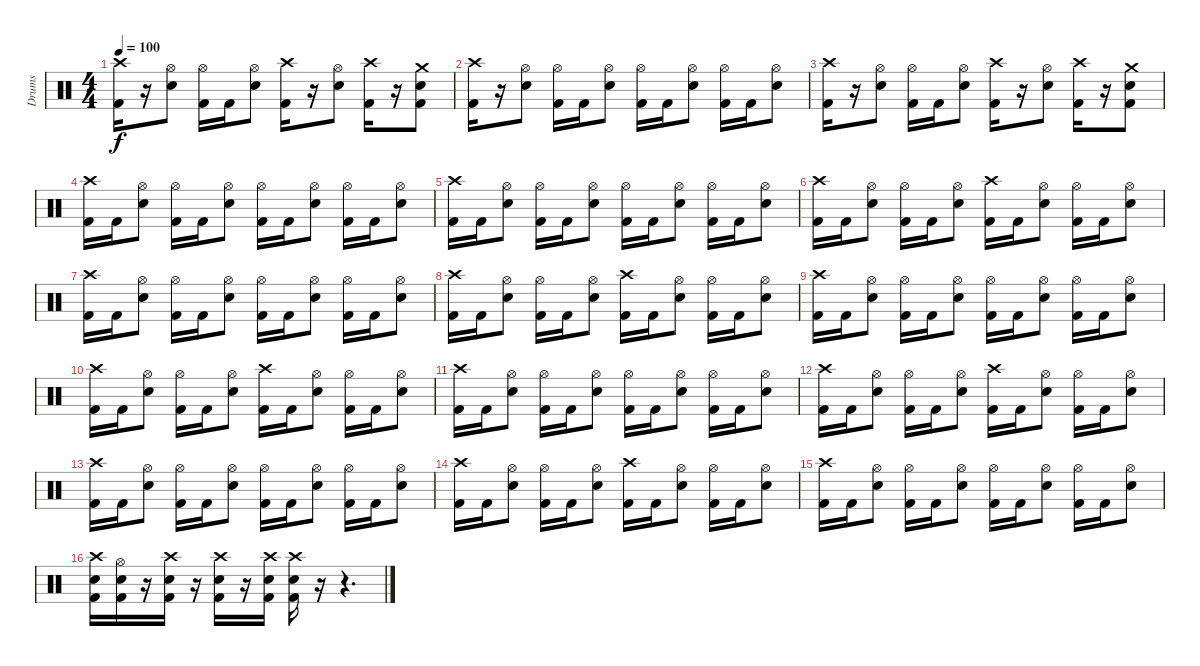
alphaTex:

\track ("Drums" "Drums") {instrument percussion}
\staff {score}
\articulation defaults
\ts (4 4)
\tempo 100
\clef neutral
\ks c
("Crash high (hit)" "Kick (hit) 2").16{dy f} r.16 ("Hi-Hat (open)" "Electric Snare (hit)").8 ("Hi-Hat (open)" "Kick (hit) 2").16 "Kick (hit) 2".16 ("Hi-Hat (open)" "Electric Snare (hit)").8 ("Crash high (hit)" "Kick (hit) 2").16 r.16 ("Hi-Hat (open)" "Electric Snare (hit)").8 ("Crash high (hit)" "Kick (hit) 2").16 r.16 ("Crash medium (hit)" "Electric Snare (hit)" "Kick (hit) 2").8 |
("Crash high (hit)" "Kick (hit) 2").16 r.16 ("Hi-Hat (open)" "Electric Snare (hit)").8 ("Hi-Hat (open)" "Kick (hit) 2").16 "Kick (hit) 2".16 ("Hi-Hat (open)" "Electric Snare (hit)").8 ("Hi-Hat (open)" "Kick (hit) 2").16 "Kick (hit) 2".16 ("Hi-Hat (open)" "Electric Snare (hit)").8 ("Hi-Hat (open)" "Kick (hit) 2").16 "Kick (hit) 2".16 ("Hi-Hat (open)" "Electric Snare (hit)").8 |
("Crash high (hit)" "Kick (hit) 2").16 r.16 ("Hi-Hat (open)" "Electric Snare (hit)").8 ("Hi-Hat (open)" "Kick (hit) 2").16 "Kick (hit) 2".16 ("Hi-Hat (open)" "Electric Snare (hit)").8 ("Crash high (hit)" "Kick (hit) 2").16 r.16 ("Hi-Hat (open)" "Electric Snare (hit)").8 ("Crash high (hit)" "Kick (hit) 2").16 r.16 ("Crash medium (hit)" "Electric Snare (hit)" "Kick (hit) 2").8 |
("Crash high (hit)" "Kick (hit) 2").16 "Kick (hit) 2".16 ("Hi-Hat (open)" "Electric Snare (hit)").8 ("Hi-Hat (open)" "Kick (hit) 2").16 "Kick (hit) 2".16 ("Hi-Hat (open)" "Electric Snare (hit)").8 ("Hi-Hat (open)" "Kick (hit) 2").16 "Kick (hit) 2".16 ("Hi-Hat (open)" "Electric Snare (hit)").8 ("Hi-Hat (open)" "Kick (hit) 2").16 "Kick (hit) 2".16 ("Hi-Hat (open)" "Electric Snare (hit)").8 |
("Crash high (hit)" "Kick (hit) 2").16 "Kick (hit) 2".16 ("Hi-Hat (open)" "Electric Snare (hit)").8 ("Hi-Hat (open)" "Kick (hit) 2").16 "Kick (hit) 2".16 ("Hi-Hat (open)" "Electric Snare (hit)").8 ("Hi-Hat (open)" "Kick (hit) 2").16 "Kick (hit) 2".16 ("Hi-Hat (open)" "Electric Snare (hit)").8 ("Hi-Hat (open)" "Kick (hit) 2").16 "Kick (hit) 2".16 ("Hi-Hat (open)" "Electric Snare (hit)").8 |
("Crash high (hit)" "Kick (hit) 2").16 "Kick (hit) 2".16 ("Hi-Hat (open)" "Electric Snare (hit)").8 ("Hi-Hat (open)" "Kick (hit) 2").16 "Kick (hit) 2".16 ("Hi-Hat (open)" "Electric Snare (hit)").8 ("Crash high (hit)" "Kick (hit) 2").16 "Kick (hit) 2".16 ("Hi-Hat (open)" "Electric Snare (hit)").8 ("Hi-Hat (open)" "Kick (hit) 2").16 "Kick (hit) 2".16 ("Hi-Hat (open)" "Electric Snare (hit)").8 |
("Crash high (hit)" "Kick (hit) 2").16 "Kick (hit) 2".16 ("Hi-Hat (open)" "Electric Snare (hit)").8 ("Hi-Hat (open)" "Kick (hit) 2").16 "Kick (hit) 2".16 ("Hi-Hat (open)" "Electric Snare (hit)").8 ("Hi-Hat (open)" "Kick (hit) 2").16 "Kick (hit) 2".16 ("Hi-Hat (open)" "Electric Snare (hit)").8 ("Hi-Hat (open)" "Kick (hit) 2").16 "Kick (hit) 2".16 ("Hi-Hat (open)" "Electric Snare (hit)").8 |
("Crash high (hit)" "Kick (hit) 2").16 "Kick (hit) 2".16 ("Hi-Hat (open)" "Electric Snare (hit)").8 ("Hi-Hat (open)" "Kick (hit) 2").16 "Kick (hit) 2".16 ("Hi-Hat (open)" "Electric Snare (hit)").8 ("Crash high (hit)" "Kick (hit) 2").16 "Kick (hit) 2".16 ("Hi-Hat (open)" "Electric Snare (hit)").8 ("Hi-Hat (open)" "Kick (hit) 2").16 "Kick (hit) 2".16 ("Hi-Hat (open)" "Electric Snare (hit)").8 |
("Crash high (hit)" "Kick (hit) 2").16 "Kick (hit) 2".16 ("Hi-Hat (open)" "Electric Snare (hit)").8 ("Hi-Hat (open)" "Kick (hit) 2").16 "Kick (hit) 2".16 ("Hi-Hat (open)" "Electric Snare (hit)").8 ("Hi-Hat (open)" "Kick (hit) 2").16 "Kick (hit) 2".16 ("Hi-Hat (open)" "Electric Snare (hit)").8 ("Hi-Hat (open)" "Kick (hit) 2").16 "Kick (hit) 2".16 ("Hi-Hat (open)" "Electric Snare (hit)").8 |
("Crash high (hit)" "Kick (hit) 2").16 "Kick (hit) 2".16 ("Hi-Hat (open)" "Electric Snare (hit)").8 ("Hi-Hat (open)" "Kick (hit) 2").16 "Kick (hit) 2".16 ("Hi-Hat (open)" "Electric Snare (hit)").8 ("Crash high (hit)" "Kick (hit) 2").16 "Kick (hit) 2".16 ("Hi-Hat (open)" "Electric Snare (hit)").8 ("Hi-Hat (open)" "Kick (hit) 2").16 "Kick (hit) 2".16 ("Hi-Hat (open)" "Electric Snare (hit)").8 |
("Crash high (hit)" "Kick (hit) 2").16 "Kick (hit) 2".16 ("Hi-Hat (open)" "Electric Snare (hit)").8 ("Hi-Hat (open)" "Kick (hit) 2").16 "Kick (hit) 2".16 ("Hi-Hat (open)" "Electric Snare (hit)").8 ("Hi-Hat (open)" "Kick (hit) 2").16 "Kick (hit) 2".16 ("Hi-Hat (open)" "Electric Snare (hit)").8 ("Hi-Hat (open)" "Kick (hit) 2").16 "Kick (hit) 2".16 ("Hi-Hat (open)" "Electric Snare (hit)").8 |
("Crash high (hit)" "Kick (hit) 2").16 "Kick (hit) 2".16 ("Hi-Hat (open)" "Electric Snare (hit)").8 ("Hi-Hat (open)" "Kick (hit) 2").16 "Kick (hit) 2".16 ("Hi-Hat (open)" "Electric Snare (hit)").8 ("Crash high (hit)" "Kick (hit) 2").16 "Kick (hit) 2".16 ("Hi-Hat (open)" "Electric Snare (hit)").8 ("Hi-Hat (open)" "Kick (hit) 2").16 "Kick (hit) 2".16 ("Hi-Hat (open)" "Electric Snare (hit)").8 |
("Crash high (hit)" "Kick (hit) 2").16 "Kick (hit) 2".16 ("Hi-Hat (open)" "Electric Snare (hit)").8 ("Hi-Hat (open)" "Kick (hit) 2").16 "Kick (hit) 2".16 ("Hi-Hat (open)" "Electric Snare (hit)").8 ("Hi-Hat (open)" "Kick (hit) 2").16 "Kick (hit) 2".16 ("Hi-Hat (open)" "Electric Snare (hit)").8 ("Hi-Hat (open)" "Kick (hit) 2").16 "Kick (hit) 2".16 ("Hi-Hat (open)" "Electric Snare (hit)").8 |
("Crash high (hit)" "Kick (hit) 2").16 "Kick (hit) 2".16 ("Hi-Hat (open)" "Electric Snare (hit)").8 ("Hi-Hat (open)" "Kick (hit) 2").16 "Kick (hit) 2".16 ("Hi-Hat (open)" "Electric Snare (hit)").8 ("Crash high (hit)" "Kick (hit) 2").16 "Kick (hit) 2".16 ("Hi-Hat (open)" "Electric Snare (hit)").8 ("Hi-Hat (open)" "Kick (hit) 2").16 "Kick (hit) 2".16 ("Hi-Hat (open)" "Electric Snare (hit)").8 |
("Crash high (hit)" "Kick (hit) 2").16 "Kick (hit) 2".16 ("Hi-Hat (open)" "Electric Snare (hit)").8 ("Hi-Hat (open)" "Kick (hit) 2").16 "Kick (hit) 2".16 ("Hi-Hat (open)" "Electric Snare (hit)").8 ("Hi-Hat (open)" "Kick (hit) 2").16 "Kick (hit) 2".16 ("Hi-Hat (open)" "Electric Snare (hit)").8 ("Hi-Hat (open)" "Kick (hit) 2").16 "Kick (hit) 2".16 ("Hi-Hat (open)" "Electric Snare (hit)").8 |
("Crash high (hit)" "Electric Snare (hit)" "Kick (hit) 2").16 ("Hi-Hat (open)" "Electric Snare (hit)" "Kick (hit) 2").16 r.16 ("Crash high (hit)" "Electric Snare (hit)" "Kick (hit) 2").16 r.16 ("Crash high (hit)" "Electric Snare (hit)" "Kick (hit) 2").16 r.16 ("Crash high (hit)" "Electric Snare (hit)" "Kick (hit) 2").16 ("Crash high (hit)" "Electric Snare (hit)" "Kick (hit) 2").16 r.16 r.4{d}
